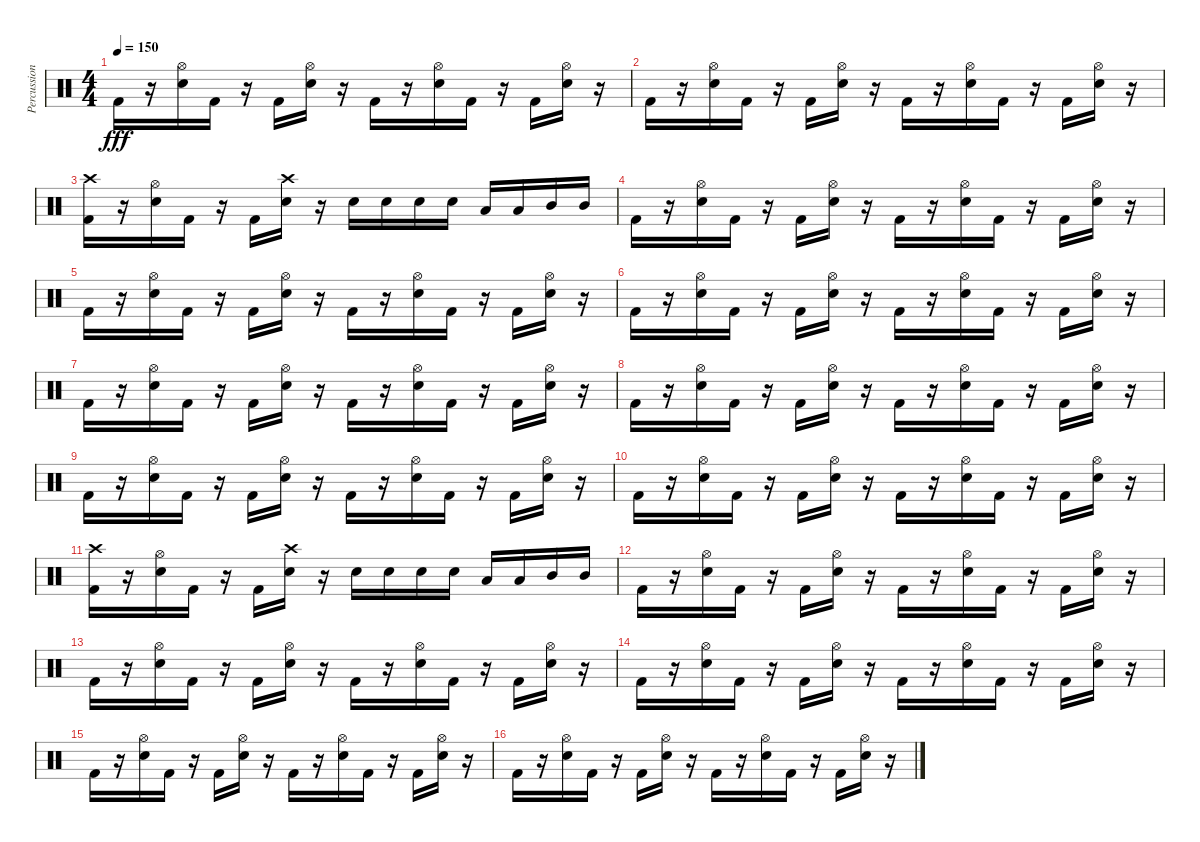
\track ("Percussion" "Percussion") {instrument percussion}
\staff {score}
\articulation defaults
\ts (4 4)
\tempo 150
\clef neutral
\ks c "Kick (hit) 2".16{dy fff}
r.16 ("Snare (hit) 2" "Hi-Hat (open)").16 "Kick (hit) 2".16 r.16 "Kick (hit) 2".16 ("Snare (hit) 2" "Hi-Hat (open)").16 r.16 "Kick (hit) 2".16 r.16 ("Snare (hit) 2" "Hi-Hat (open)").16 "Kick (hit) 2".16 r.16 "Kick (hit) 2".16 ("Snare (hit) 2" "Hi-Hat (open)").16 r.16 |
"Kick (hit) 2".16 r.16 ("Snare (hit) 2" "Hi-Hat (open)").16 "Kick (hit) 2".16 r.16 "Kick (hit) 2".16 ("Snare (hit) 2" "Hi-Hat (open)").16 r.16 "Kick (hit) 2".16 r.16 ("Snare (hit) 2" "Hi-Hat (open)").16 "Kick (hit) 2".16 r.16 "Kick (hit) 2".16 ("Snare (hit) 2" "Hi-Hat (open)").16 r.16 |
("Kick (hit) 2" "Crash high (hit)").16 r.16 ("Snare (hit) 2" "Hi-Hat (open)").16 "Kick (hit) 2".16 r.16 "Kick (hit) 2".16 ("Snare (hit) 2" "Crash high (hit)").16 r.16 "Snare (hit) 2".16 "Snare (hit) 2".16 "Snare (hit) 2".16 "Snare (hit) 2".16 "Low Tom (hit)".16 "Low Tom (hit)".16 "Mid Tom (hit)".16 "Mid Tom (hit)".16 |
"Kick (hit) 2".16 r.16 ("Snare (hit) 2" "Hi-Hat (open)").16 "Kick (hit) 2".16 r.16 "Kick (hit) 2".16 ("Snare (hit) 2" "Hi-Hat (open)").16 r.16 "Kick (hit) 2".16 r.16 ("Snare (hit) 2" "Hi-Hat (open)").16 "Kick (hit) 2".16 r.16 "Kick (hit) 2".16 ("Snare (hit) 2" "Hi-Hat (open)").16 r.16 |
"Kick (hit) 2".16 r.16 ("Snare (hit) 2" "Hi-Hat (open)").16 "Kick (hit) 2".16 r.16 "Kick (hit) 2".16 ("Snare (hit) 2" "Hi-Hat (open)").16 r.16 "Kick (hit) 2".16 r.16 ("Snare (hit) 2" "Hi-Hat (open)").16 "Kick (hit) 2".16 r.16 "Kick (hit) 2".16 ("Snare (hit) 2" "Hi-Hat (open)").16 r.16 |
"Kick (hit) 2".16 r.16 ("Snare (hit) 2" "Hi-Hat (open)").16 "Kick (hit) 2".16 r.16 "Kick (hit) 2".16 ("Snare (hit) 2" "Hi-Hat (open)").16 r.16 "Kick (hit) 2".16 r.16 ("Snare (hit) 2" "Hi-Hat (open)").16 "Kick (hit) 2".16 r.16 "Kick (hit) 2".16 ("Snare (hit) 2" "Hi-Hat (open)").16 r.16 |
"Kick (hit) 2".16 r.16 ("Snare (hit) 2" "Hi-Hat (open)").16 "Kick (hit) 2".16 r.16 "Kick (hit) 2".16 ("Snare (hit) 2" "Hi-Hat (open)").16 r.16 "Kick (hit) 2".16 r.16 ("Snare (hit) 2" "Hi-Hat (open)").16 "Kick (hit) 2".16 r.16 "Kick (hit) 2".16 ("Snare (hit) 2" "Hi-Hat (open)").16 r.16 |
"Kick (hit) 2".16 r.16 ("Snare (hit) 2" "Hi-Hat (open)").16 "Kick (hit) 2".16 r.16 "Kick (hit) 2".16 ("Snare (hit) 2" "Hi-Hat (open)").16 r.16 "Kick (hit) 2".16 r.16 ("Snare (hit) 2" "Hi-Hat (open)").16 "Kick (hit) 2".16 r.16 "Kick (hit) 2".16 ("Snare (hit) 2" "Hi-Hat (open)").16 r.16 |
"Kick (hit) 2".16 r.16 ("Snare (hit) 2" "Hi-Hat (open)").16 "Kick (hit) 2".16 r.16 "Kick (hit) 2".16 ("Snare (hit) 2" "Hi-Hat (open)").16 r.16 "Kick (hit) 2".16 r.16 ("Snare (hit) 2" "Hi-Hat (open)").16 "Kick (hit) 2".16 r.16 "Kick (hit) 2".16 ("Snare (hit) 2" "Hi-Hat (open)").16 r.16 |
"Kick (hit) 2".16 r.16 ("Snare (hit) 2" "Hi-Hat (open)").16 "Kick (hit) 2".16 r.16 "Kick (hit) 2".16 ("Snare (hit) 2" "Hi-Hat (open)").16 r.16 "Kick (hit) 2".16 r.16 ("Snare (hit) 2" "Hi-Hat (open)").16 "Kick (hit) 2".16 r.16 "Kick (hit) 2".16 ("Snare (hit) 2" "Hi-Hat (open)").16 r.16 |
("Kick (hit) 2" "Crash high (hit)").16 r.16 ("Snare (hit) 2" "Hi-Hat (open)").16 "Kick (hit) 2".16 r.16 "Kick (hit) 2".16 ("Snare (hit) 2" "Crash high (hit)").16 r.16 "Snare (hit) 2".16 "Snare (hit) 2".16 "Snare (hit) 2".16 "Snare (hit) 2".16 "Low Tom (hit)".16 "Low Tom (hit)".16 "Mid Tom (hit)".16 "Mid Tom (hit)".16 |
"Kick (hit) 2".16 r.16 ("Snare (hit) 2" "Hi-Hat (open)").16 "Kick (hit) 2".16 r.16 "Kick (hit) 2".16 ("Snare (hit) 2" "Hi-Hat (open)").16 r.16 "Kick (hit) 2".16 r.16 ("Snare (hit) 2" "Hi-Hat (open)").16 "Kick (hit) 2".16 r.16 "Kick (hit) 2".16 ("Snare (hit) 2" "Hi-Hat (open)").16 r.16 |
"Kick (hit) 2".16 r.16 ("Snare (hit) 2" "Hi-Hat (open)").16 "Kick (hit) 2".16 r.16 "Kick (hit) 2".16 ("Snare (hit) 2" "Hi-Hat (open)").16 r.16 "Kick (hit) 2".16 r.16 ("Snare (hit) 2" "Hi-Hat (open)").16 "Kick (hit) 2".16 r.16 "Kick (hit) 2".16 ("Snare (hit) 2" "Hi-Hat (open)").16 r.16 |
"Kick (hit) 2".16 r.16 ("Snare (hit) 2" "Hi-Hat (open)").16 "Kick (hit) 2".16 r.16 "Kick (hit) 2".16 ("Snare (hit) 2" "Hi-Hat (open)").16 r.16 "Kick (hit) 2".16 r.16 ("Snare (hit) 2" "Hi-Hat (open)").16 "Kick (hit) 2".16 r.16 "Kick (hit) 2".16 ("Snare (hit) 2" "Hi-Hat (open)").16 r.16 |
"Kick (hit) 2".16 r.16 ("Snare (hit) 2" "Hi-Hat (open)").16 "Kick (hit) 2".16 r.16 "Kick (hit) 2".16 ("Snare (hit) 2" "Hi-Hat (open)").16 r.16 "Kick (hit) 2".16 r.16 ("Snare (hit) 2" "Hi-Hat (open)").16 "Kick (hit) 2".16 r.16 "Kick (hit) 2".16 ("Snare (hit) 2" "Hi-Hat (open)").16 r.16 |
"Kick (hit) 2".16 r.16 ("Snare (hit) 2" "Hi-Hat (open)").16 "Kick (hit) 2".16 r.16 "Kick (hit) 2".16 ("Snare (hit) 2" "Hi-Hat (open)").16 r.16 "Kick (hit) 2".16 r.16 ("Snare (hit) 2" "Hi-Hat (open)").16 "Kick (hit) 2".16 r.16 "Kick (hit) 2".16 ("Snare (hit) 2" "Hi-Hat (open)").16 r.16
